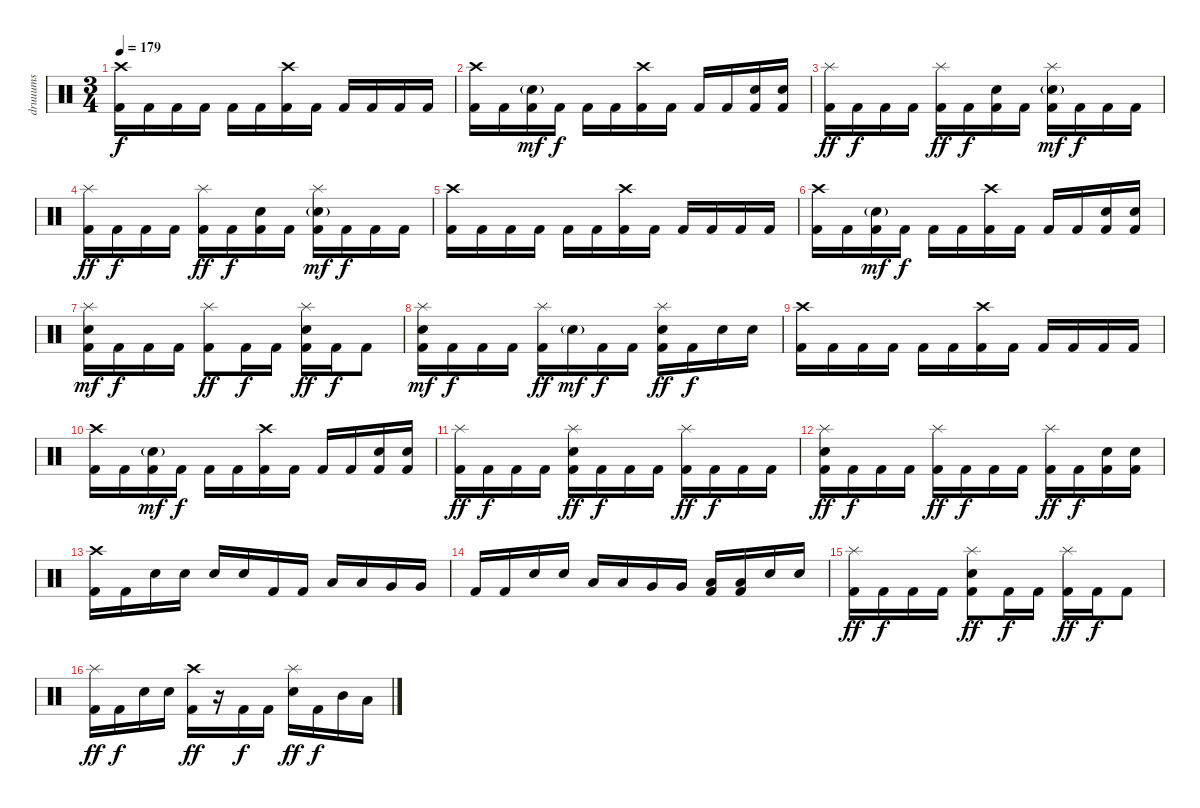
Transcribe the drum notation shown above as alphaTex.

\track ("druuums" "druuums") {instrument percussion}
\staff {score}
\articulation defaults
\ts (3 4)
\tempo 179
\clef neutral
\ks c
("Crash high (hit)" "Kick (hit) 2").16{dy f} "Kick (hit) 2".16 "Kick (hit) 2".16 "Kick (hit) 2".16 "Kick (hit) 2".16 "Kick (hit) 2".16 ("Crash high (hit)" "Kick (hit) 2").16 "Kick (hit) 2".16 "Kick (hit) 2".16 "Kick (hit) 2".16 "Kick (hit) 2".16 "Kick (hit) 2".16 |
("Crash high (hit)" "Kick (hit) 2").16 "Kick (hit) 2".16 ("Electric Snare (hit)"{g} "Kick (hit) 2").16{dy mf} "Kick (hit) 2".16{dy f} "Kick (hit) 2".16 "Kick (hit) 2".16 ("Crash high (hit)" "Kick (hit) 2").16 "Kick (hit) 2".16 "Kick (hit) 2".16 "Kick (hit) 2".16 ("Electric Snare (hit)" "Kick (hit) 2").16 ("Electric Snare (hit)" "Kick (hit) 2").16 |
("Splash (hit)" "Kick (hit) 2").16{dy ff} "Kick (hit) 2".16{dy f} "Kick (hit) 2".16 "Kick (hit) 2".16 ("Splash (hit)" "Kick (hit) 2").16{dy ff} "Kick (hit) 2".16{dy f} ("Electric Snare (hit)" "Kick (hit) 2").16 "Kick (hit) 2".16 ("Splash (hit)" "Electric Snare (hit)"{g} "Kick (hit) 2").16{dy mf} "Kick (hit) 2".16{dy f} "Kick (hit) 2".16 "Kick (hit) 2".16 |
("Splash (hit)" "Kick (hit) 2").16{dy ff} "Kick (hit) 2".16{dy f} "Kick (hit) 2".16 "Kick (hit) 2".16 ("Splash (hit)" "Kick (hit) 2").16{dy ff} "Kick (hit) 2".16{dy f} ("Electric Snare (hit)" "Kick (hit) 2").16 "Kick (hit) 2".16 ("Splash (hit)" "Electric Snare (hit)"{g} "Kick (hit) 2").16{dy mf} "Kick (hit) 2".16{dy f} "Kick (hit) 2".16 "Kick (hit) 2".16 |
("Crash high (hit)" "Kick (hit) 2").16 "Kick (hit) 2".16 "Kick (hit) 2".16 "Kick (hit) 2".16 "Kick (hit) 2".16 "Kick (hit) 2".16 ("Crash high (hit)" "Kick (hit) 2").16 "Kick (hit) 2".16 "Kick (hit) 2".16 "Kick (hit) 2".16 "Kick (hit) 2".16 "Kick (hit) 2".16 |
("Crash high (hit)" "Kick (hit) 2").16 "Kick (hit) 2".16 ("Electric Snare (hit)"{g} "Kick (hit) 2").16{dy mf} "Kick (hit) 2".16{dy f} "Kick (hit) 2".16 "Kick (hit) 2".16 ("Crash high (hit)" "Kick (hit) 2").16 "Kick (hit) 2".16 "Kick (hit) 2".16 "Kick (hit) 2".16 ("Electric Snare (hit)" "Kick (hit) 2").16 ("Electric Snare (hit)" "Kick (hit) 2").16 |
("Splash (hit)" "Electric Snare (hit)" "Kick (hit) 2").16{dy mf} "Kick (hit) 2".16{dy f} "Kick (hit) 2".16 "Kick (hit) 2".16 ("Splash (hit)" "Kick (hit) 2").8{dy ff} "Kick (hit) 2".16{dy f} "Kick (hit) 2".16 ("Splash (hit)" "Electric Snare (hit)" "Kick (hit) 2").16{dy ff} "Kick (hit) 2".16{dy f} "Kick (hit) 2".8 |
("Splash (hit)" "Electric Snare (hit)" "Kick (hit) 2").16{dy mf} "Kick (hit) 2".16{dy f} "Kick (hit) 2".16 "Kick (hit) 2".16 ("Splash (hit)" "Kick (hit) 2").16{dy ff} "Electric Snare (hit)"{g}.16{dy mf} "Kick (hit) 2".16{dy f} "Kick (hit) 2".16 ("Splash (hit)" "Electric Snare (hit)" "Kick (hit) 2").16{dy ff} "Kick (hit) 2".16{dy f} "Electric Snare (hit)".16 "Electric Snare (hit)".16 |
("Crash high (hit)" "Kick (hit) 2").16 "Kick (hit) 2".16 "Kick (hit) 2".16 "Kick (hit) 2".16 "Kick (hit) 2".16 "Kick (hit) 2".16 ("Crash high (hit)" "Kick (hit) 2").16 "Kick (hit) 2".16 "Kick (hit) 2".16 "Kick (hit) 2".16 "Kick (hit) 2".16 "Kick (hit) 2".16 |
("Crash high (hit)" "Kick (hit) 2").16 "Kick (hit) 2".16 ("Electric Snare (hit)"{g} "Kick (hit) 2").16{dy mf} "Kick (hit) 2".16{dy f} "Kick (hit) 2".16 "Kick (hit) 2".16 ("Crash high (hit)" "Kick (hit) 2").16 "Kick (hit) 2".16 "Kick (hit) 2".16 "Kick (hit) 2".16 ("Electric Snare (hit)" "Kick (hit) 2").16 ("Electric Snare (hit)" "Kick (hit) 2").16 |
("Splash (hit)" "Kick (hit) 2").16{dy ff} "Kick (hit) 2".16{dy f} "Kick (hit) 2".16 "Kick (hit) 2".16 ("Splash (hit)" "Electric Snare (hit)" "Kick (hit) 2").16{dy ff} "Kick (hit) 2".16{dy f} "Kick (hit) 2".16 "Kick (hit) 2".16 ("Splash (hit)" "Kick (hit) 2").16{dy ff} "Kick (hit) 2".16{dy f} "Kick (hit) 2".16 "Kick (hit) 2".16 |
("Splash (hit)" "Electric Snare (hit)" "Kick (hit) 2").16{dy ff} "Kick (hit) 2".16{dy f} "Kick (hit) 2".16 "Kick (hit) 2".16 ("Splash (hit)" "Kick (hit) 2").16{dy ff} "Kick (hit) 2".16{dy f} "Kick (hit) 2".16 "Kick (hit) 2".16 ("Splash (hit)" "Kick (hit) 2").16{dy ff} "Kick (hit) 2".16{dy f} ("Electric Snare (hit)" "Kick (hit) 2").16 ("Electric Snare (hit)" "Kick (hit) 2").16 |
("Crash high (hit)" "Kick (hit) 2").16 "Kick (hit) 2".16 "Electric Snare (hit)".16 "Electric Snare (hit)".16 "Electric Snare (hit)".16 "Electric Snare (hit)".16 "Kick (hit) 2".16 "Kick (hit) 2".16 "Low Tom (hit)".16 "Low Tom (hit)".16 "Very Low Tom (hit)".16 "Very Low Tom (hit)".16 |
"Kick (hit) 2".16 "Kick (hit) 2".16 "Electric Snare (hit)".16 "Electric Snare (hit)".16 "Low Tom (hit)".16 "Low Tom (hit)".16 "Very Low Tom (hit)".16 "Very Low Tom (hit)".16 ("Low Floor Tom (hit)" "Kick (hit) 2").16 ("Low Floor Tom (hit)" "Kick (hit) 2").16 "Electric Snare (hit)".16 "Electric Snare (hit)".16 |
("Splash (hit)" "Kick (hit) 2").16{dy ff} "Kick (hit) 2".16{dy f} "Kick (hit) 2".16 "Kick (hit) 2".16 ("Splash (hit)" "Electric Snare (hit)" "Kick (hit) 2").8{dy ff} "Kick (hit) 2".16{dy f} "Kick (hit) 2".16 ("Splash (hit)" "Kick (hit) 2").16{dy ff} "Kick (hit) 2".16{dy f} "Kick (hit) 2".8 |
("Splash (hit)" "Kick (hit) 2").16{dy ff} "Kick (hit) 2".16{dy f} "Electric Snare (hit)".16 "Electric Snare (hit)".16 ("Crash high (hit)" "Kick (hit) 2").16{dy ff} r.16 "Kick (hit) 2".16{dy f} "Kick (hit) 2".16 ("Splash (hit)" "Electric Snare (hit)").16{dy ff} "Kick (hit) 2".16{dy f} "Mid Tom (hit)".16 "Low Tom (hit)".16
